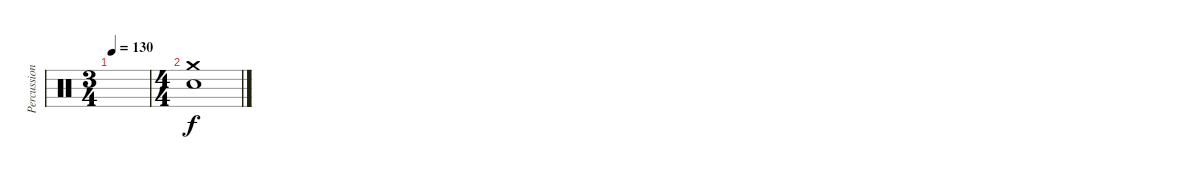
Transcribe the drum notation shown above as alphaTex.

\track ("Percussion" "Percussion") {instrument percussion}
\staff {score}
\articulation defaults
\ts (3 4)
\tempo 130
\clef neutral
\ks c
|
\ts (4 4)
("Crash medium (hit)" "Electric Snare (hit)").1
